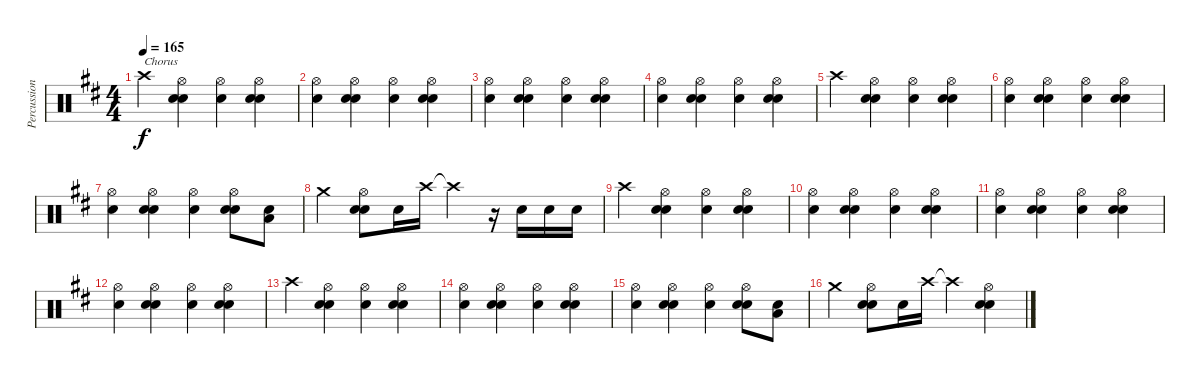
\track ("Percussion" "Percussion") {instrument percussion}
\staff {score}
\articulation defaults
\ts (4 4)
\tempo 165
\clef neutral
\ks d "Crash high (hit)".4{txt "Chorus" dy f}
("Hi-Hat (open)" "Snare (hit) 2" "Electric Snare (hit)").4 ("Hi-Hat (open)" "Snare (hit) 2").4 ("Hi-Hat (open)" "Snare (hit) 2" "Electric Snare (hit)").4 |
("Hi-Hat (open)" "Snare (hit) 2").4 ("Hi-Hat (open)" "Snare (hit) 2" "Electric Snare (hit)").4 ("Hi-Hat (open)" "Snare (hit) 2").4 ("Hi-Hat (open)" "Snare (hit) 2" "Electric Snare (hit)").4 |
("Hi-Hat (open)" "Snare (hit) 2").4 ("Hi-Hat (open)" "Snare (hit) 2" "Electric Snare (hit)").4 ("Hi-Hat (open)" "Snare (hit) 2").4 ("Hi-Hat (open)" "Snare (hit) 2" "Electric Snare (hit)").4 |
("Hi-Hat (open)" "Snare (hit) 2").4 ("Hi-Hat (open)" "Snare (hit) 2" "Electric Snare (hit)").4 ("Hi-Hat (open)" "Snare (hit) 2").4 ("Hi-Hat (open)" "Snare (hit) 2" "Electric Snare (hit)").4 |
"Crash high (hit)".4 ("Hi-Hat (open)" "Snare (hit) 2" "Electric Snare (hit)").4 ("Hi-Hat (open)" "Snare (hit) 2").4 ("Hi-Hat (open)" "Snare (hit) 2" "Electric Snare (hit)").4 |
("Hi-Hat (open)" "Snare (hit) 2").4 ("Hi-Hat (open)" "Snare (hit) 2" "Electric Snare (hit)").4 ("Hi-Hat (open)" "Snare (hit) 2").4 ("Hi-Hat (open)" "Snare (hit) 2" "Electric Snare (hit)").4 |
("Hi-Hat (open)" "Snare (hit) 2").4 ("Hi-Hat (open)" "Snare (hit) 2" "Electric Snare (hit)").4 ("Hi-Hat (open)" "Snare (hit) 2").4 ("Hi-Hat (open)" "Snare (hit) 2" "Electric Snare (hit)").8 ("Snare (hit) 2" "Low Floor Tom (hit)").8 |
"Crash medium (hit)".4 ("Hi-Hat (open)" "Snare (hit) 2" "Electric Snare (hit)").8 "Snare (hit) 2".16 "Crash high (hit)".16 "Crash high (hit)"{t}.4 r.16 "Snare (hit) 2".16 "Snare (hit) 2".16 "Snare (hit) 2".16 |
"Crash high (hit)".4 ("Hi-Hat (open)" "Snare (hit) 2" "Electric Snare (hit)").4 ("Hi-Hat (open)" "Snare (hit) 2").4 ("Hi-Hat (open)" "Snare (hit) 2" "Electric Snare (hit)").4 |
("Hi-Hat (open)" "Snare (hit) 2").4 ("Hi-Hat (open)" "Snare (hit) 2" "Electric Snare (hit)").4 ("Hi-Hat (open)" "Snare (hit) 2").4 ("Hi-Hat (open)" "Snare (hit) 2" "Electric Snare (hit)").4 |
("Hi-Hat (open)" "Snare (hit) 2").4 ("Hi-Hat (open)" "Snare (hit) 2" "Electric Snare (hit)").4 ("Hi-Hat (open)" "Snare (hit) 2").4 ("Hi-Hat (open)" "Snare (hit) 2" "Electric Snare (hit)").4 |
("Hi-Hat (open)" "Snare (hit) 2").4 ("Hi-Hat (open)" "Snare (hit) 2" "Electric Snare (hit)").4 ("Hi-Hat (open)" "Snare (hit) 2").4 ("Hi-Hat (open)" "Snare (hit) 2" "Electric Snare (hit)").4 |
"Crash high (hit)".4 ("Hi-Hat (open)" "Snare (hit) 2" "Electric Snare (hit)").4 ("Hi-Hat (open)" "Snare (hit) 2").4 ("Hi-Hat (open)" "Snare (hit) 2" "Electric Snare (hit)").4 |
("Hi-Hat (open)" "Snare (hit) 2").4 ("Hi-Hat (open)" "Snare (hit) 2" "Electric Snare (hit)").4 ("Hi-Hat (open)" "Snare (hit) 2").4 ("Hi-Hat (open)" "Snare (hit) 2" "Electric Snare (hit)").4 |
("Hi-Hat (open)" "Snare (hit) 2").4 ("Hi-Hat (open)" "Snare (hit) 2" "Electric Snare (hit)").4 ("Hi-Hat (open)" "Snare (hit) 2").4 ("Hi-Hat (open)" "Snare (hit) 2" "Electric Snare (hit)").8 ("Snare (hit) 2" "Low Floor Tom (hit)").8 |
"Crash medium (hit)".4 ("Hi-Hat (open)" "Snare (hit) 2" "Electric Snare (hit)").8 "Snare (hit) 2".16 "Crash high (hit)".16 "Crash high (hit)"{t}.4 ("Hi-Hat (open)" "Snare (hit) 2" "Electric Snare (hit)").4
